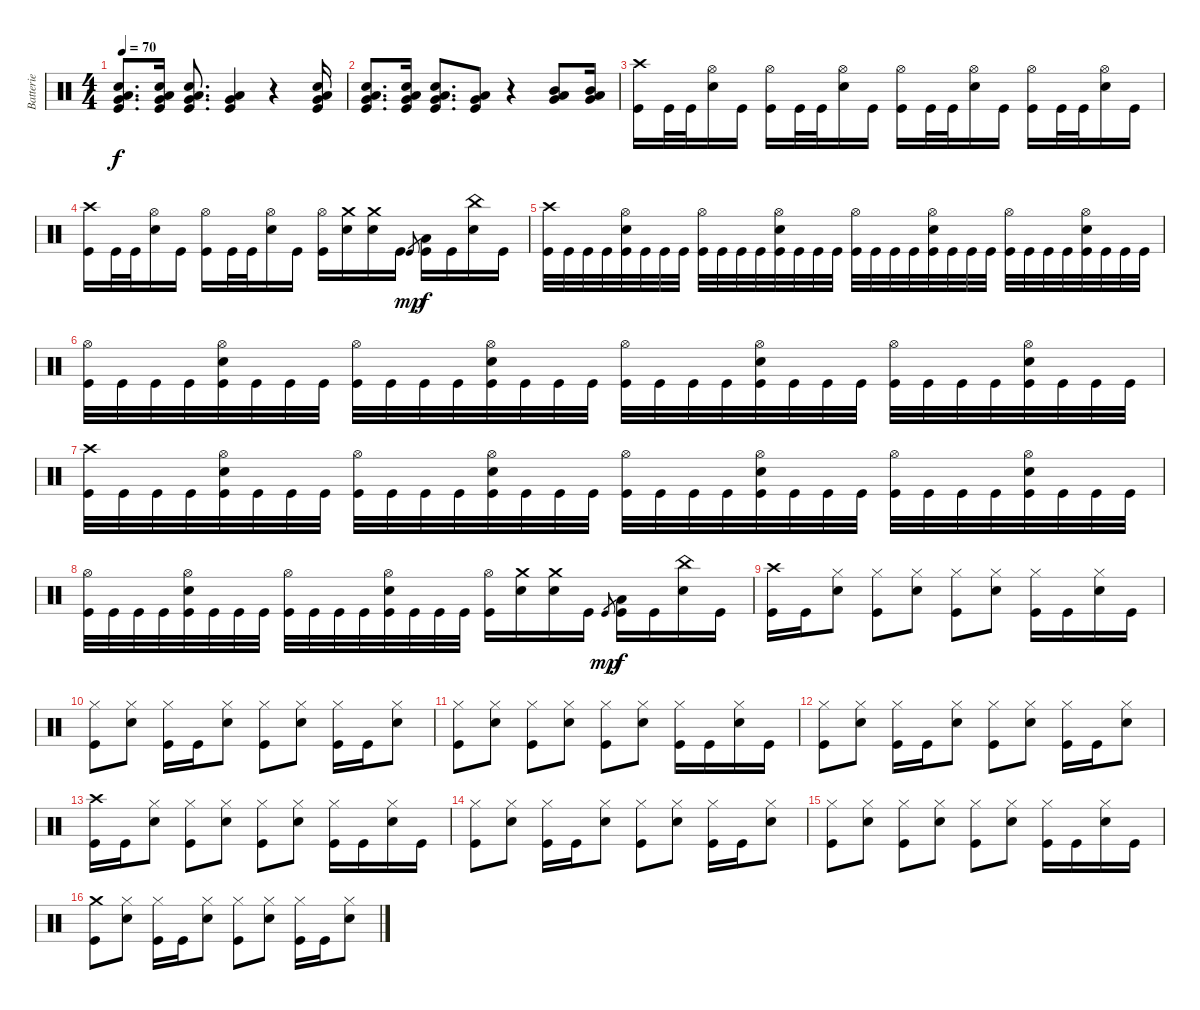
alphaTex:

\track ("Batterie" "Batterie") {instrument percussion}
\staff {score}
\articulation defaults
\ts (4 4)
\tempo 70
\clef neutral
\ks c
("Snare (hit) 2" "Low Floor Tom (hit)" "Kick (hit)" "Very Low Tom (hit)").8{d dy f} ("Snare (hit) 2" "Low Floor Tom (hit)" "Kick (hit)" "Very Low Tom (hit)").16 ("Snare (hit) 2" "Low Floor Tom (hit)" "Kick (hit)" "Very Low Tom (hit)").8{d} ("Low Floor Tom (hit)" "Kick (hit)" "Very Low Tom (hit)").4 r.4 ("Snare (hit) 2" "Low Floor Tom (hit)" "Kick (hit)" "Very Low Tom (hit)").16 |
("Snare (hit) 2" "Low Floor Tom (hit)" "Kick (hit)" "Very Low Tom (hit)").8{d} ("Snare (hit) 2" "Low Floor Tom (hit)" "Kick (hit)" "Very Low Tom (hit)").16 ("Snare (hit) 2" "Low Floor Tom (hit)" "Kick (hit)" "Very Low Tom (hit)").8{d} ("Low Floor Tom (hit)" "Kick (hit)" "Very Low Tom (hit)").8 r.4 ("Low Floor Tom (hit)" "Mid Tom (hit)" "Very Low Tom (hit)").8 ("Low Floor Tom (hit)" "Mid Tom (hit)" "Very Low Tom (hit)").16 |
("Kick (hit)" "Crash high (hit)").16 "Kick (hit)".32 "Kick (hit)".32 ("Hi-Hat (open)" "Snare (hit) 2").16 "Kick (hit)".16 ("Kick (hit)" "Hi-Hat (open)").16 "Kick (hit)".32 "Kick (hit)".32 ("Hi-Hat (open)" "Snare (hit) 2").16 "Kick (hit)".16 ("Kick (hit)" "Hi-Hat (open)").16 "Kick (hit)".32 "Kick (hit)".32 ("Hi-Hat (open)" "Snare (hit) 2").16 "Kick (hit)".16 ("Kick (hit)" "Hi-Hat (open)").16 "Kick (hit)".32 "Kick (hit)".32 ("Hi-Hat (open)" "Snare (hit) 2").16 "Kick (hit)".16 |
("Kick (hit)" "Crash high (hit)").16 "Kick (hit)".32 "Kick (hit)".32 ("Hi-Hat (open)" "Snare (hit) 2").16 "Kick (hit)".16 ("Kick (hit)" "Hi-Hat (open)").16 "Kick (hit)".32 "Kick (hit)".32 ("Hi-Hat (open)" "Snare (hit) 2").16 "Kick (hit)".16 ("Kick (hit)" "Hi-Hat (open)").16 ("Snare (hit) 2" "Crash medium (hit)").16 ("Snare (hit) 2" "Crash medium (hit)").16 "Kick (hit)".16 "Kick (hit)".8{gr dy mp} ("Low Floor Tom (hit)" "Kick (hit)").16{dy f} "Kick (hit)".16 ("Snare (hit) 2" "China (hit)").16 "Kick (hit)".16 |
("Crash high (hit)" "Kick (hit)").32 "Kick (hit)".32 "Kick (hit)".32 "Kick (hit)".32 ("Kick (hit)" "Snare (hit) 2" "Hi-Hat (open)").32 "Kick (hit)".32 "Kick (hit)".32 "Kick (hit)".32 ("Hi-Hat (open)" "Kick (hit)").32 "Kick (hit)".32 "Kick (hit)".32 "Kick (hit)".32 ("Kick (hit)" "Snare (hit) 2" "Hi-Hat (open)").32 "Kick (hit)".32 "Kick (hit)".32 "Kick (hit)".32 ("Hi-Hat (open)" "Kick (hit)").32 "Kick (hit)".32 "Kick (hit)".32 "Kick (hit)".32 ("Kick (hit)" "Snare (hit) 2" "Hi-Hat (open)").32 "Kick (hit)".32 "Kick (hit)".32 "Kick (hit)".32 ("Hi-Hat (open)" "Kick (hit)").32 "Kick (hit)".32 "Kick (hit)".32 "Kick (hit)".32 ("Kick (hit)" "Snare (hit) 2" "Hi-Hat (open)").32 "Kick (hit)".32 "Kick (hit)".32 "Kick (hit)".32 |
("Hi-Hat (open)" "Kick (hit)").32 "Kick (hit)".32 "Kick (hit)".32 "Kick (hit)".32 ("Kick (hit)" "Snare (hit) 2" "Hi-Hat (open)").32 "Kick (hit)".32 "Kick (hit)".32 "Kick (hit)".32 ("Hi-Hat (open)" "Kick (hit)").32 "Kick (hit)".32 "Kick (hit)".32 "Kick (hit)".32 ("Kick (hit)" "Snare (hit) 2" "Hi-Hat (open)").32 "Kick (hit)".32 "Kick (hit)".32 "Kick (hit)".32 ("Hi-Hat (open)" "Kick (hit)").32 "Kick (hit)".32 "Kick (hit)".32 "Kick (hit)".32 ("Kick (hit)" "Snare (hit) 2" "Hi-Hat (open)").32 "Kick (hit)".32 "Kick (hit)".32 "Kick (hit)".32 ("Hi-Hat (open)" "Kick (hit)").32 "Kick (hit)".32 "Kick (hit)".32 "Kick (hit)".32 ("Kick (hit)" "Snare (hit) 2" "Hi-Hat (open)").32 "Kick (hit)".32 "Kick (hit)".32 "Kick (hit)".32 |
("Crash high (hit)" "Kick (hit)").32 "Kick (hit)".32 "Kick (hit)".32 "Kick (hit)".32 ("Kick (hit)" "Snare (hit) 2" "Hi-Hat (open)").32 "Kick (hit)".32 "Kick (hit)".32 "Kick (hit)".32 ("Hi-Hat (open)" "Kick (hit)").32 "Kick (hit)".32 "Kick (hit)".32 "Kick (hit)".32 ("Kick (hit)" "Snare (hit) 2" "Hi-Hat (open)").32 "Kick (hit)".32 "Kick (hit)".32 "Kick (hit)".32 ("Hi-Hat (open)" "Kick (hit)").32 "Kick (hit)".32 "Kick (hit)".32 "Kick (hit)".32 ("Kick (hit)" "Snare (hit) 2" "Hi-Hat (open)").32 "Kick (hit)".32 "Kick (hit)".32 "Kick (hit)".32 ("Hi-Hat (open)" "Kick (hit)").32 "Kick (hit)".32 "Kick (hit)".32 "Kick (hit)".32 ("Kick (hit)" "Snare (hit) 2" "Hi-Hat (open)").32 "Kick (hit)".32 "Kick (hit)".32 "Kick (hit)".32 |
("Hi-Hat (open)" "Kick (hit)").32 "Kick (hit)".32 "Kick (hit)".32 "Kick (hit)".32 ("Kick (hit)" "Snare (hit) 2" "Hi-Hat (open)").32 "Kick (hit)".32 "Kick (hit)".32 "Kick (hit)".32 ("Hi-Hat (open)" "Kick (hit)").32 "Kick (hit)".32 "Kick (hit)".32 "Kick (hit)".32 ("Kick (hit)" "Snare (hit) 2" "Hi-Hat (open)").32 "Kick (hit)".32 "Kick (hit)".32 "Kick (hit)".32 ("Kick (hit)" "Hi-Hat (open)").16 ("Snare (hit) 2" "Crash medium (hit)").16 ("Snare (hit) 2" "Crash medium (hit)").16 "Kick (hit)".16 "Kick (hit)".8{gr dy mp} ("Low Floor Tom (hit)" "Kick (hit)").16{dy f} "Kick (hit)".16 ("Snare (hit) 2" "China (hit)").16 "Kick (hit)".16 |
("Kick (hit)" "Crash high (hit)").16 "Kick (hit)".16 ("Hi-Hat (closed)" "Snare (hit) 2").8 ("Kick (hit)" "Hi-Hat (closed)").8 ("Snare (hit) 2" "Hi-Hat (closed)").8 ("Kick (hit)" "Hi-Hat (closed)").8 ("Snare (hit) 2" "Hi-Hat (closed)").8 ("Kick (hit)" "Hi-Hat (closed)").16 "Kick (hit)".16 ("Snare (hit) 2" "Hi-Hat (closed)").16 "Kick (hit)".16 |
("Kick (hit)" "Hi-Hat (closed)").8 ("Hi-Hat (closed)" "Snare (hit) 2").8 ("Kick (hit)" "Hi-Hat (closed)").16 "Kick (hit)".16 ("Snare (hit) 2" "Hi-Hat (closed)").8 ("Kick (hit)" "Hi-Hat (closed)").8 ("Snare (hit) 2" "Hi-Hat (closed)").8 ("Kick (hit)" "Hi-Hat (closed)").16 "Kick (hit)".16 ("Snare (hit) 2" "Hi-Hat (closed)").8 |
("Kick (hit)" "Hi-Hat (closed)").8 ("Hi-Hat (closed)" "Snare (hit) 2").8 ("Kick (hit)" "Hi-Hat (closed)").8 ("Snare (hit) 2" "Hi-Hat (closed)").8 ("Kick (hit)" "Hi-Hat (closed)").8 ("Snare (hit) 2" "Hi-Hat (closed)").8 ("Kick (hit)" "Hi-Hat (closed)").16 "Kick (hit)".16 ("Snare (hit) 2" "Hi-Hat (closed)").16 "Kick (hit)".16 |
("Kick (hit)" "Hi-Hat (closed)").8 ("Hi-Hat (closed)" "Snare (hit) 2").8 ("Kick (hit)" "Hi-Hat (closed)").16 "Kick (hit)".16 ("Snare (hit) 2" "Hi-Hat (closed)").8 ("Kick (hit)" "Hi-Hat (closed)").8 ("Snare (hit) 2" "Hi-Hat (closed)").8 ("Kick (hit)" "Hi-Hat (closed)").16 "Kick (hit)".16 ("Snare (hit) 2" "Hi-Hat (closed)").8 |
("Kick (hit)" "Crash high (hit)").16 "Kick (hit)".16 ("Hi-Hat (closed)" "Snare (hit) 2").8 ("Kick (hit)" "Hi-Hat (closed)").8 ("Snare (hit) 2" "Hi-Hat (closed)").8 ("Kick (hit)" "Hi-Hat (closed)").8 ("Snare (hit) 2" "Hi-Hat (closed)").8 ("Kick (hit)" "Hi-Hat (closed)").16 "Kick (hit)".16 ("Snare (hit) 2" "Hi-Hat (closed)").16 "Kick (hit)".16 |
("Kick (hit)" "Hi-Hat (closed)").8 ("Hi-Hat (closed)" "Snare (hit) 2").8 ("Kick (hit)" "Hi-Hat (closed)").16 "Kick (hit)".16 ("Snare (hit) 2" "Hi-Hat (closed)").8 ("Kick (hit)" "Hi-Hat (closed)").8 ("Snare (hit) 2" "Hi-Hat (closed)").8 ("Kick (hit)" "Hi-Hat (closed)").16 "Kick (hit)".16 ("Snare (hit) 2" "Hi-Hat (closed)").8 |
("Kick (hit)" "Hi-Hat (closed)").8 ("Hi-Hat (closed)" "Snare (hit) 2").8 ("Kick (hit)" "Hi-Hat (closed)").8 ("Snare (hit) 2" "Hi-Hat (closed)").8 ("Kick (hit)" "Hi-Hat (closed)").8 ("Snare (hit) 2" "Hi-Hat (closed)").8 ("Kick (hit)" "Hi-Hat (closed)").16 "Kick (hit)".16 ("Snare (hit) 2" "Hi-Hat (closed)").16 "Kick (hit)".16 |
("Kick (hit)" "Crash medium (hit)").8 ("Hi-Hat (closed)" "Snare (hit) 2").8 ("Kick (hit)" "Hi-Hat (closed)").16 "Kick (hit)".16 ("Snare (hit) 2" "Hi-Hat (closed)").8 ("Kick (hit)" "Hi-Hat (closed)").8 ("Snare (hit) 2" "Hi-Hat (closed)").8 ("Kick (hit)" "Hi-Hat (closed)").16 "Kick (hit)".16 ("Snare (hit) 2" "Hi-Hat (closed)").8
